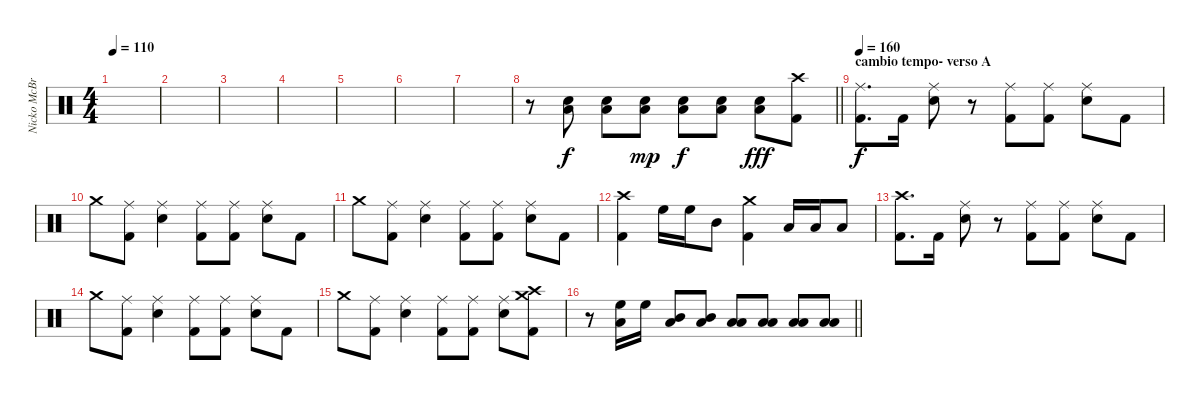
\track ("Nicko McBrain" "Nicko McBr") {instrument percussion}
\staff {score}
\articulation defaults
\ts (4 4)
\tempo 110
\clef neutral
\ks c
|
|
|
|
|
|
|
\barLineRight lightlight
r.8 ("Snare (hit) 2" "Low Floor Tom (hit)").8 ("Snare (hit) 2" "Low Floor Tom (hit)").8 ("Snare (hit) 2" "Low Floor Tom (hit)").8{dy mp} ("Snare (hit) 2" "Low Floor Tom (hit)").8{dy f} ("Snare (hit) 2" "Low Floor Tom (hit)").8 ("Snare (hit) 2" "Low Floor Tom (hit)").8{dy fff} ("Crash high (hit)" "Kick (hit) 2").8 |
\section ("" "cambio tempo- verso A")
\tempo 160
("Ride (middle)" "Kick (hit) 2").8{d dy f} "Kick (hit) 2".16 ("Ride (middle)" "Snare (hit) 2").8 r.8 ("Ride (middle)" "Kick (hit) 2").8 ("Ride (middle)" "Kick (hit) 2").8 ("Ride (middle)" "Snare (hit) 2").8 "Kick (hit) 2".8 |
"Crash medium (hit)".8 ("Ride (middle)" "Kick (hit) 2").8 ("Ride (middle)" "Snare (hit) 2").4 ("Ride (middle)" "Kick (hit) 2").8 ("Ride (middle)" "Kick (hit) 2").8 ("Ride (middle)" "Snare (hit) 2").8 "Kick (hit) 2".8 |
"Crash medium (hit)".8 ("Ride (middle)" "Kick (hit) 2").8 ("Ride (middle)" "Snare (hit) 2").4 ("Ride (middle)" "Kick (hit) 2").8 ("Ride (middle)" "Kick (hit) 2").8 ("Ride (middle)" "Snare (hit) 2").8 "Kick (hit) 2".8 |
("Crash high (hit)" "Kick (hit) 2").4 "High Floor Tom (hit)".16 "High Floor Tom (hit)".16 "Mid Tom (hit)".8 ("Crash medium (hit)" "Kick (hit) 2").4 "Low Tom (hit)".16 "Low Tom (hit)".16 "Low Floor Tom (hit)".8 |
("Crash high (hit)" "Kick (hit) 2").8{d} "Kick (hit) 2".16 ("Ride (middle)" "Snare (hit) 2").8 r.8 ("Ride (middle)" "Kick (hit) 2").8 ("Ride (middle)" "Kick (hit) 2").8 ("Ride (middle)" "Snare (hit) 2").8 "Kick (hit) 2".8 |
"Crash medium (hit)".8 ("Ride (middle)" "Kick (hit) 2").8 ("Ride (middle)" "Snare (hit) 2").4 ("Ride (middle)" "Kick (hit) 2").8 ("Ride (middle)" "Kick (hit) 2").8 ("Ride (middle)" "Snare (hit) 2").8 "Kick (hit) 2".8 |
"Crash medium (hit)".8 ("Ride (middle)" "Kick (hit) 2").8 ("Ride (middle)" "Snare (hit) 2").4 ("Ride (middle)" "Kick (hit) 2").8 ("Ride (middle)" "Kick (hit) 2").8 ("Ride (middle)" "Snare (hit) 2").8 ("Crash high (hit)" "Crash medium (hit)" "Kick (hit) 2").8 |
\barLineRight lightlight
r.8 ("High Floor Tom (hit)" "Low Floor Tom (hit)").16 "High Floor Tom (hit)".16 ("Mid Tom (hit)" "Low Floor Tom (hit)").8 ("Mid Tom (hit)" "Low Floor Tom (hit)").8 ("Low Tom (hit)" "Low Floor Tom (hit)").8 ("Low Tom (hit)" "Low Floor Tom (hit)").8 ("Low Floor Tom (hit)" "Low Floor Tom (hit)").8 ("Low Floor Tom (hit)" "Low Floor Tom (hit)").8
